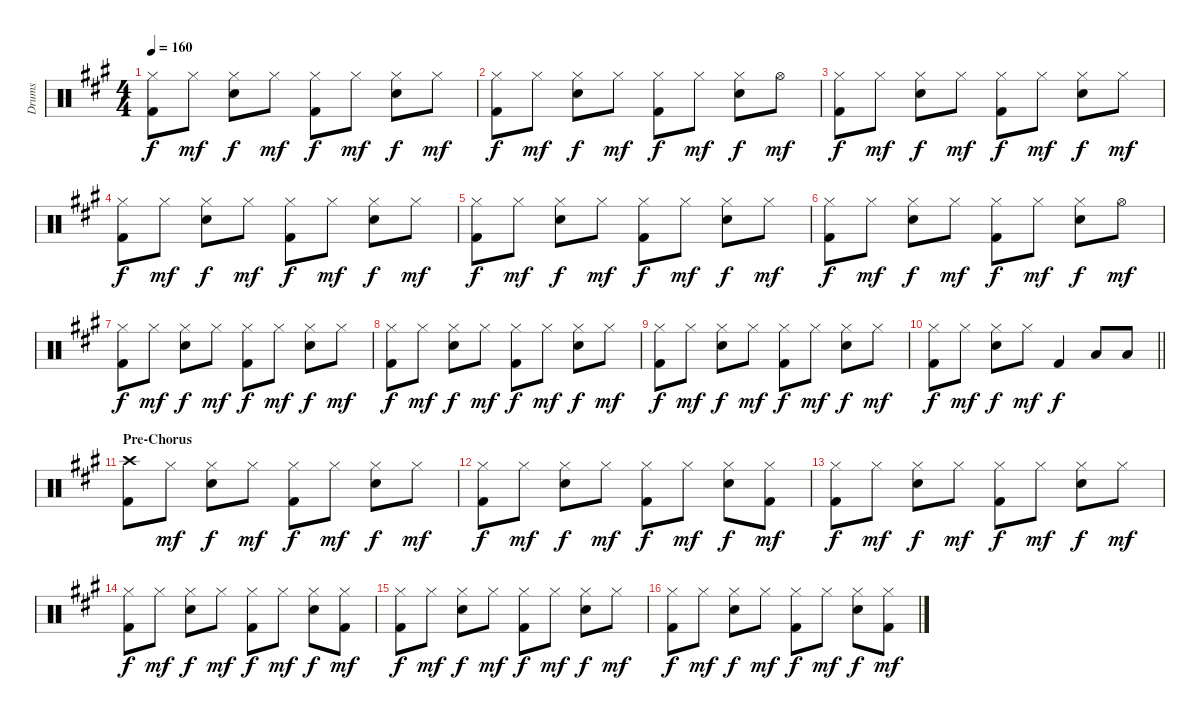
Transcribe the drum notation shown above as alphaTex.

\track ("Drums" "Drums") {instrument percussion}
\staff {score}
\articulation defaults
\ts (4 4)
\tempo 160
\clef neutral
\ks a
("Hi-Hat (closed)" "Kick (hit) 2").8{dy f} "Hi-Hat (closed)".8{dy mf} ("Hi-Hat (closed)" "Electric Snare (hit)").8{dy f} "Hi-Hat (closed)".8{dy mf} ("Hi-Hat (closed)" "Kick (hit) 2").8{dy f} "Hi-Hat (closed)".8{dy mf} ("Hi-Hat (closed)" "Electric Snare (hit)").8{dy f} "Hi-Hat (closed)".8{dy mf} |
("Hi-Hat (closed)" "Kick (hit) 2").8{dy f} "Hi-Hat (closed)".8{dy mf} ("Hi-Hat (closed)" "Electric Snare (hit)").8{dy f} "Hi-Hat (closed)".8{dy mf} ("Hi-Hat (closed)" "Kick (hit) 2").8{dy f} "Hi-Hat (closed)".8{dy mf} ("Hi-Hat (closed)" "Electric Snare (hit)").8{dy f} "Hi-Hat (open)".8{dy mf} |
("Hi-Hat (closed)" "Kick (hit) 2").8{dy f} "Hi-Hat (closed)".8{dy mf} ("Hi-Hat (closed)" "Electric Snare (hit)").8{dy f} "Hi-Hat (closed)".8{dy mf} ("Hi-Hat (closed)" "Kick (hit) 2").8{dy f} "Hi-Hat (closed)".8{dy mf} ("Hi-Hat (closed)" "Electric Snare (hit)").8{dy f} "Hi-Hat (closed)".8{dy mf} |
("Hi-Hat (closed)" "Kick (hit) 2").8{dy f} "Hi-Hat (closed)".8{dy mf} ("Hi-Hat (closed)" "Electric Snare (hit)").8{dy f} "Hi-Hat (closed)".8{dy mf} ("Hi-Hat (closed)" "Kick (hit) 2").8{dy f} "Hi-Hat (closed)".8{dy mf} ("Hi-Hat (closed)" "Electric Snare (hit)").8{dy f} "Hi-Hat (closed)".8{dy mf} |
("Hi-Hat (closed)" "Kick (hit) 2").8{dy f} "Hi-Hat (closed)".8{dy mf} ("Hi-Hat (closed)" "Electric Snare (hit)").8{dy f} "Hi-Hat (closed)".8{dy mf} ("Hi-Hat (closed)" "Kick (hit) 2").8{dy f} "Hi-Hat (closed)".8{dy mf} ("Hi-Hat (closed)" "Electric Snare (hit)").8{dy f} "Hi-Hat (closed)".8{dy mf} |
("Hi-Hat (closed)" "Kick (hit) 2").8{dy f} "Hi-Hat (closed)".8{dy mf} ("Hi-Hat (closed)" "Electric Snare (hit)").8{dy f} "Hi-Hat (closed)".8{dy mf} ("Hi-Hat (closed)" "Kick (hit) 2").8{dy f} "Hi-Hat (closed)".8{dy mf} ("Hi-Hat (closed)" "Electric Snare (hit)").8{dy f} "Hi-Hat (open)".8{dy mf} |
("Hi-Hat (closed)" "Kick (hit) 2").8{dy f} "Hi-Hat (closed)".8{dy mf} ("Hi-Hat (closed)" "Electric Snare (hit)").8{dy f} "Hi-Hat (closed)".8{dy mf} ("Hi-Hat (closed)" "Kick (hit) 2").8{dy f} "Hi-Hat (closed)".8{dy mf} ("Hi-Hat (closed)" "Electric Snare (hit)").8{dy f} "Hi-Hat (closed)".8{dy mf} |
("Hi-Hat (closed)" "Kick (hit) 2").8{dy f} "Hi-Hat (closed)".8{dy mf} ("Hi-Hat (closed)" "Electric Snare (hit)").8{dy f} "Hi-Hat (closed)".8{dy mf} ("Hi-Hat (closed)" "Kick (hit) 2").8{dy f} "Hi-Hat (closed)".8{dy mf} ("Hi-Hat (closed)" "Electric Snare (hit)").8{dy f} "Hi-Hat (closed)".8{dy mf} |
("Hi-Hat (closed)" "Kick (hit) 2").8{dy f} "Hi-Hat (closed)".8{dy mf} ("Hi-Hat (closed)" "Electric Snare (hit)").8{dy f} "Hi-Hat (closed)".8{dy mf} ("Hi-Hat (closed)" "Kick (hit) 2").8{dy f} "Hi-Hat (closed)".8{dy mf} ("Hi-Hat (closed)" "Electric Snare (hit)").8{dy f} "Hi-Hat (closed)".8{dy mf} |
\barLineRight lightlight
("Hi-Hat (closed)" "Kick (hit) 2").8{dy f} "Hi-Hat (closed)".8{dy mf} ("Hi-Hat (closed)" "Electric Snare (hit)").8{dy f} "Hi-Hat (closed)".8{dy mf} "Kick (hit) 2".4{dy f} "Low Tom (hit)".8 "Low Tom (hit)".8 |
\section ("" "Pre-Chorus")
("Crash high (hit)" "Kick (hit) 2").8 "Hi-Hat (closed)".8{dy mf} ("Hi-Hat (closed)" "Electric Snare (hit)").8{dy f} "Hi-Hat (closed)".8{dy mf} ("Hi-Hat (closed)" "Kick (hit) 2").8{dy f} "Hi-Hat (closed)".8{dy mf} ("Hi-Hat (closed)" "Electric Snare (hit)").8{dy f} "Hi-Hat (closed)".8{dy mf} |
("Hi-Hat (closed)" "Kick (hit) 2").8{dy f} "Hi-Hat (closed)".8{dy mf} ("Hi-Hat (closed)" "Electric Snare (hit)").8{dy f} "Hi-Hat (closed)".8{dy mf} ("Hi-Hat (closed)" "Kick (hit) 2").8{dy f} "Hi-Hat (closed)".8{dy mf} ("Hi-Hat (closed)" "Electric Snare (hit)").8{dy f} ("Hi-Hat (closed)" "Kick (hit) 2").8{dy mf} |
("Hi-Hat (closed)" "Kick (hit) 2").8{dy f} "Hi-Hat (closed)".8{dy mf} ("Hi-Hat (closed)" "Electric Snare (hit)").8{dy f} "Hi-Hat (closed)".8{dy mf} ("Hi-Hat (closed)" "Kick (hit) 2").8{dy f} "Hi-Hat (closed)".8{dy mf} ("Hi-Hat (closed)" "Electric Snare (hit)").8{dy f} "Hi-Hat (closed)".8{dy mf} |
("Hi-Hat (closed)" "Kick (hit) 2").8{dy f} "Hi-Hat (closed)".8{dy mf} ("Hi-Hat (closed)" "Electric Snare (hit)").8{dy f} "Hi-Hat (closed)".8{dy mf} ("Hi-Hat (closed)" "Kick (hit) 2").8{dy f} "Hi-Hat (closed)".8{dy mf} ("Hi-Hat (closed)" "Electric Snare (hit)").8{dy f} ("Hi-Hat (closed)" "Kick (hit) 2").8{dy mf} |
("Hi-Hat (closed)" "Kick (hit) 2").8{dy f} "Hi-Hat (closed)".8{dy mf} ("Hi-Hat (closed)" "Electric Snare (hit)").8{dy f} "Hi-Hat (closed)".8{dy mf} ("Hi-Hat (closed)" "Kick (hit) 2").8{dy f} "Hi-Hat (closed)".8{dy mf} ("Hi-Hat (closed)" "Electric Snare (hit)").8{dy f} "Hi-Hat (closed)".8{dy mf} |
("Hi-Hat (closed)" "Kick (hit) 2").8{dy f} "Hi-Hat (closed)".8{dy mf} ("Hi-Hat (closed)" "Electric Snare (hit)").8{dy f} "Hi-Hat (closed)".8{dy mf} ("Hi-Hat (closed)" "Kick (hit) 2").8{dy f} "Hi-Hat (closed)".8{dy mf} ("Hi-Hat (closed)" "Electric Snare (hit)").8{dy f} ("Hi-Hat (closed)" "Kick (hit) 2").8{dy mf}
